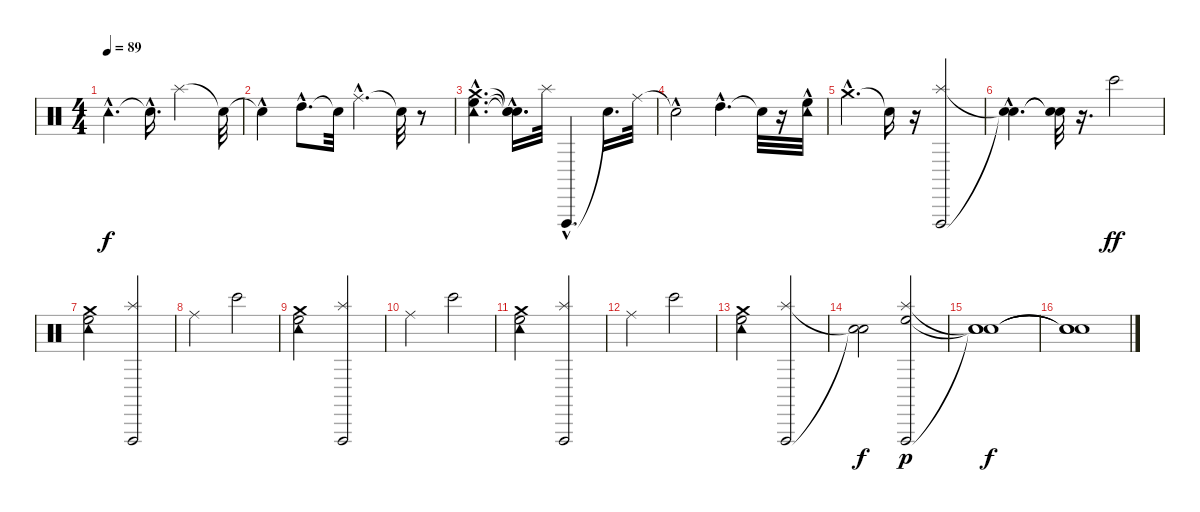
\track "" {instrument percussion}
\staff {score}
\articulation defaults
\ts (4 4)
\tempo 89
\clef neutral
\ks c "Tambourine (hit)"{hac}.4{d dy f} "Snare (hit)"{hac t}.16{d} "Splash (hit)".2 "Snare (hit)"{t}.32
|
"Snare (hit)"{hac t}.4 "High Tom (hit)"{hac}.8{d} "Snare (hit)"{t}.32 "Ride (middle)"{hac}.4{d} "Snare (hit)"{t}.32 r.8 |
("Tambourine (hit)"{hac} "Crash medium (hit)"{hac} "High Floor Tom (hit)"{hac}).4{d} ("Snare (hit)"{hac t} "Snare (hit)"{hac t} "Snare (hit)"{t}).16{d} "Splash (hit)".32 "Vibraslap (hit)"{hac}.4{d} "Snare (hit)"{t}.16{d} "Ride (middle)".32 |
"Snare (hit)"{hac t}.2 "High Tom (hit)"{hac}.4{d} "Snare (hit)"{t}.32 r.16 ("High Floor Tom (hit)" "Tambourine (hit)"{hac}).32 |
"Crash medium (hit)"{hac}.4{d} "Snare (hit)"{t}.16 r.16 ("Splash (hit)" "Vibraslap (hit)").2 |
("Snare (hit)"{hac t} "Snare (hit)"{hac t}).4{d} ("Snare (hit)"{t} "Snare (hit)"{t}).32 r.16{d} "Bongo High (hit)".2{dy ff} |
("Crash medium (hit)" "Tambourine (hit)" "High Floor Tom (hit)").2 ("Splash (hit)" "Vibraslap (hit)").2 |
"Ride (middle)".2 "Bongo High (hit)".2 |
("High Floor Tom (hit)" "Tambourine (hit)" "Crash medium (hit)").2 ("Splash (hit)" "Vibraslap (hit)").2 |
"Ride (middle)".2 "Bongo High (hit)".2 |
("Crash medium (hit)" "Tambourine (hit)" "High Floor Tom (hit)").2 ("Splash (hit)" "Vibraslap (hit)").2 |
"Ride (middle)".2 "Bongo High (hit)".2 |
("High Floor Tom (hit)" "Tambourine (hit)" "Crash medium (hit)").2 ("Splash (hit)" "Vibraslap (hit)").2 |
("Snare (hit)"{t} "Snare (hit)"{t}).2{dy f} ("Vibraslap (hit)" "Splash (hit)" "High Floor Tom (hit)").2{dy p} |
("Snare (hit)"{t} "Snare (hit)"{t} "Snare (hit)"{t}).1{dy f} |
("Snare (hit)"{t} "Snare (hit)"{t} "Snare (hit)"{t}).1
